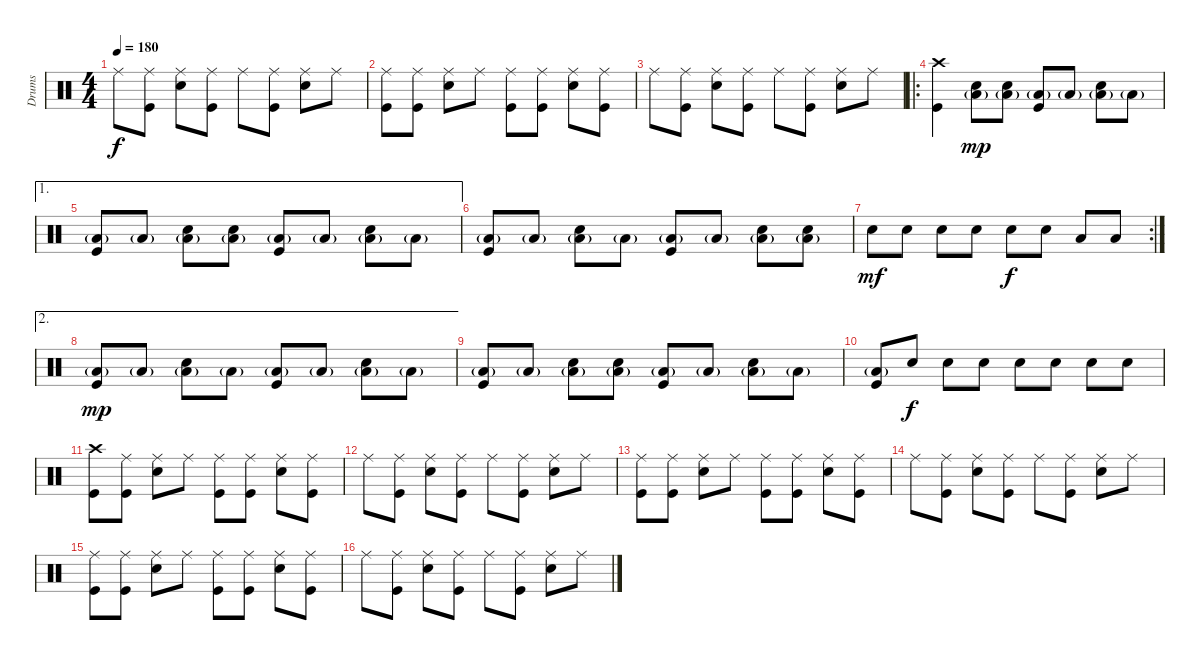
\track ("Drums" "Drums") {instrument percussion}
\staff {score}
\articulation defaults
\ts (4 4)
\tempo 180
\clef neutral
\ks c "Ride (middle)".8{dy f}
("Ride (middle)" "Kick (hit)").8 ("Ride (middle)" "Electric Snare (hit)").8 ("Ride (middle)" "Kick (hit)").8 "Ride (middle)".8 ("Ride (middle)" "Kick (hit)").8 ("Ride (middle)" "Electric Snare (hit)").8 "Ride (middle)".8 |
("Ride (middle)" "Kick (hit)").8 ("Ride (middle)" "Kick (hit)").8 ("Ride (middle)" "Electric Snare (hit)").8 "Ride (middle)".8 ("Ride (middle)" "Kick (hit)").8 ("Ride (middle)" "Kick (hit)").8 ("Ride (middle)" "Electric Snare (hit)").8 ("Ride (middle)" "Kick (hit)").8 |
"Ride (middle)".8 ("Ride (middle)" "Kick (hit)").8 ("Ride (middle)" "Electric Snare (hit)").8 ("Ride (middle)" "Kick (hit)").8 "Ride (middle)".8 ("Ride (middle)" "Kick (hit)").8 ("Ride (middle)" "Electric Snare (hit)").8 "Ride (middle)".8 |
\ro
("Crash high (hit)" "Kick (hit)").4 ("Low Tom (hit)"{g} "Electric Snare (hit)").8{dy mp} ("Low Tom (hit)"{g} "Electric Snare (hit)").8 ("Low Tom (hit)"{g} "Kick (hit)").8 "Low Tom (hit)"{g}.8 ("Low Tom (hit)"{g} "Electric Snare (hit)").8 "Low Tom (hit)"{g}.8 |
\ae 1
("Low Tom (hit)"{g} "Kick (hit)").8 "Low Tom (hit)"{g}.8 ("Low Tom (hit)"{g} "Electric Snare (hit)").8 ("Low Tom (hit)"{g} "Electric Snare (hit)").8 ("Low Tom (hit)"{g} "Kick (hit)").8 "Low Tom (hit)"{g}.8 ("Low Tom (hit)"{g} "Electric Snare (hit)").8 "Low Tom (hit)"{g}.8 |
("Low Tom (hit)"{g} "Kick (hit)").8 "Low Tom (hit)"{g}.8 ("Low Tom (hit)"{g} "Electric Snare (hit)").8 "Low Tom (hit)"{g}.8 ("Low Tom (hit)"{g} "Kick (hit)").8 "Low Tom (hit)"{g}.8 ("Low Tom (hit)"{g} "Electric Snare (hit)").8 ("Low Tom (hit)"{g} "Electric Snare (hit)").8 |
\rc 2 "Electric Snare (hit)".8{dy mf} "Electric Snare (hit)".8 "Electric Snare (hit)".8 "Electric Snare (hit)".8 "Electric Snare (hit)".8{dy f} "Electric Snare (hit)".8 "Low Tom (hit)".8 "Low Tom (hit)".8
|
\ae 2
("Low Tom (hit)"{g} "Kick (hit)").8{dy mp} "Low Tom (hit)"{g}.8 ("Low Tom (hit)"{g} "Electric Snare (hit)").8 "Low Tom (hit)"{g}.8 ("Low Tom (hit)"{g} "Kick (hit)").8 "Low Tom (hit)"{g}.8 ("Low Tom (hit)"{g} "Electric Snare (hit)").8 "Low Tom (hit)"{g}.8 |
("Low Tom (hit)"{g} "Kick (hit)").8 "Low Tom (hit)"{g}.8 ("Low Tom (hit)"{g} "Electric Snare (hit)").8 ("Low Tom (hit)"{g} "Electric Snare (hit)").8 ("Low Tom (hit)"{g} "Kick (hit)").8 "Low Tom (hit)"{g}.8 ("Low Tom (hit)"{g} "Electric Snare (hit)").8 "Low Tom (hit)"{g}.8 |
("Low Tom (hit)"{g} "Kick (hit)").8 "Electric Snare (hit)".8{dy f} "Electric Snare (hit)".8 "Electric Snare (hit)".8 "Electric Snare (hit)".8 "Electric Snare (hit)".8 "Electric Snare (hit)".8 "Electric Snare (hit)".8 |
("Crash high (hit)" "Kick (hit)").8 ("Ride (middle)" "Kick (hit)").8 ("Ride (middle)" "Electric Snare (hit)").8 "Ride (middle)".8 ("Ride (middle)" "Kick (hit)").8 ("Ride (middle)" "Kick (hit)").8 ("Ride (middle)" "Electric Snare (hit)").8 ("Ride (middle)" "Kick (hit)").8 |
"Ride (middle)".8 ("Ride (middle)" "Kick (hit)").8 ("Ride (middle)" "Electric Snare (hit)").8 ("Ride (middle)" "Kick (hit)").8 "Ride (middle)".8 ("Ride (middle)" "Kick (hit)").8 ("Ride (middle)" "Electric Snare (hit)").8 "Ride (middle)".8 |
("Ride (middle)" "Kick (hit)").8 ("Ride (middle)" "Kick (hit)").8 ("Ride (middle)" "Electric Snare (hit)").8 "Ride (middle)".8 ("Ride (middle)" "Kick (hit)").8 ("Ride (middle)" "Kick (hit)").8 ("Ride (middle)" "Electric Snare (hit)").8 ("Ride (middle)" "Kick (hit)").8 |
"Ride (middle)".8 ("Ride (middle)" "Kick (hit)").8 ("Ride (middle)" "Electric Snare (hit)").8 ("Ride (middle)" "Kick (hit)").8 "Ride (middle)".8 ("Ride (middle)" "Kick (hit)").8 ("Ride (middle)" "Electric Snare (hit)").8 "Ride (middle)".8 |
("Ride (middle)" "Kick (hit)").8 ("Ride (middle)" "Kick (hit)").8 ("Ride (middle)" "Electric Snare (hit)").8 "Ride (middle)".8 ("Ride (middle)" "Kick (hit)").8 ("Ride (middle)" "Kick (hit)").8 ("Ride (middle)" "Electric Snare (hit)").8 ("Ride (middle)" "Kick (hit)").8 |
"Ride (middle)".8 ("Ride (middle)" "Kick (hit)").8 ("Ride (middle)" "Electric Snare (hit)").8 ("Ride (middle)" "Kick (hit)").8 "Ride (middle)".8 ("Ride (middle)" "Kick (hit)").8 ("Ride (middle)" "Electric Snare (hit)").8 "Ride (middle)".8
